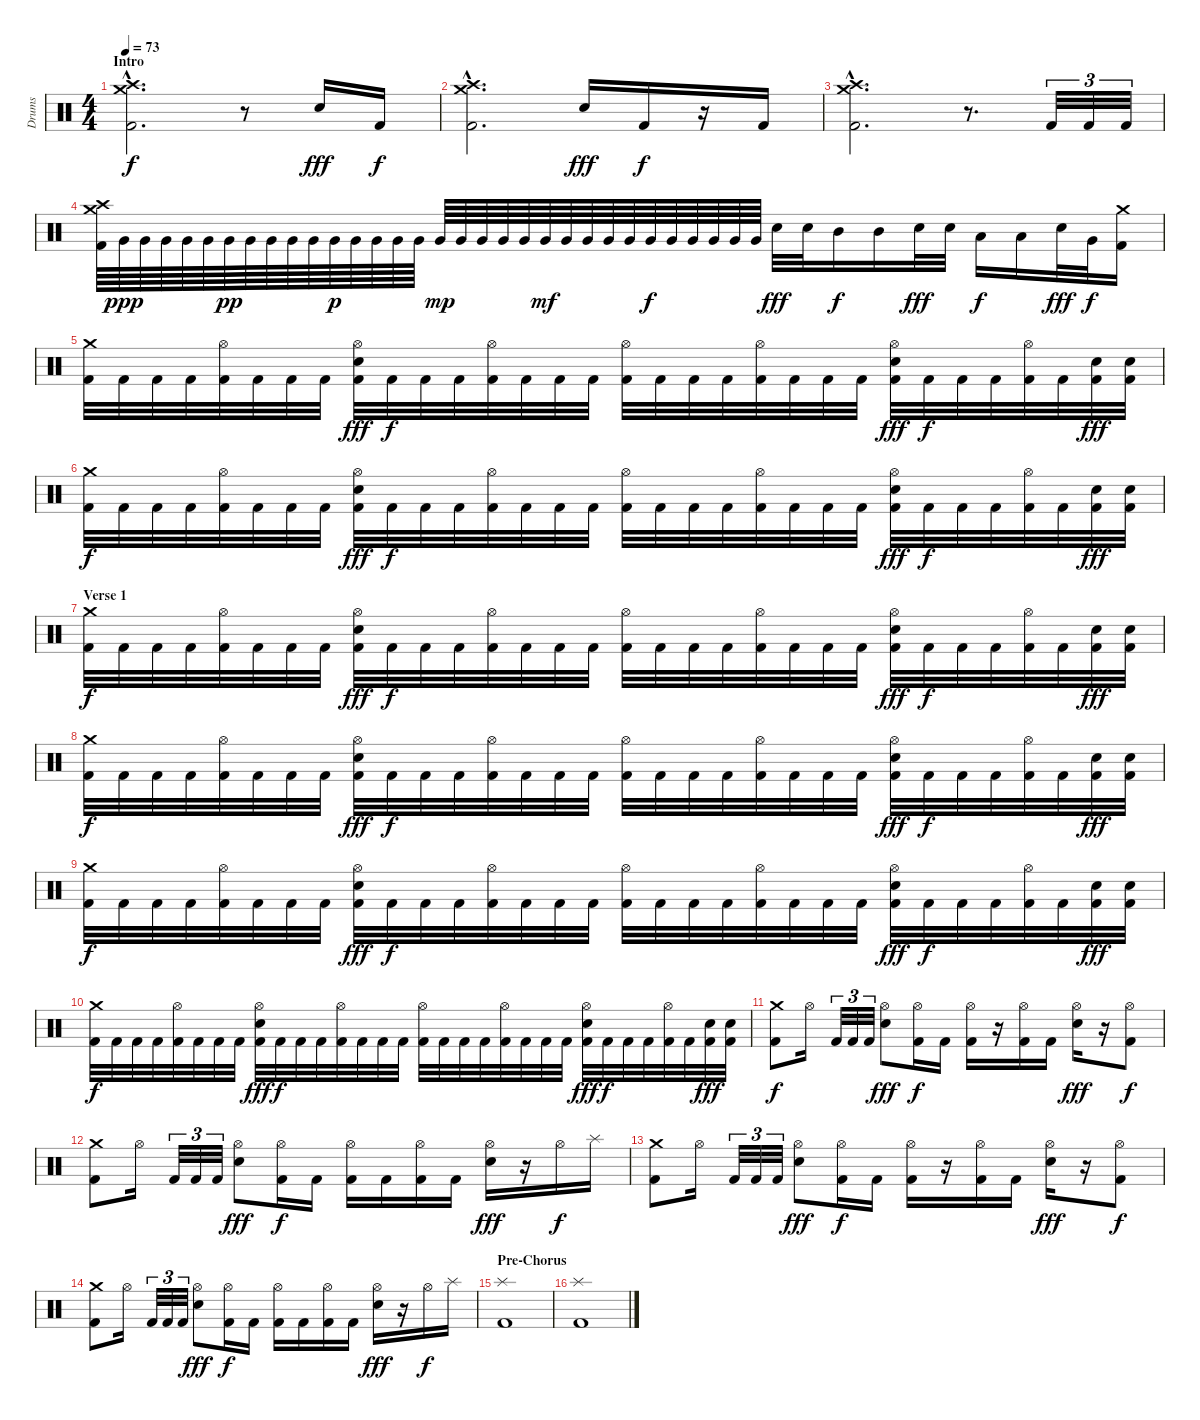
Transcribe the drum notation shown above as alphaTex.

\track ("Drums" "Drums") {instrument percussion}
\staff {score}
\articulation defaults
\ts (4 4)
\section ("" "Intro")
\tempo 73
\clef neutral
\ks c
("Crash high (hit)"{hac} "Crash medium (hit)"{hac} "Kick (hit) 2"{hac}).2{d dy f} r.8 "Snare (hit) 2".16{dy fff} "Kick (hit) 2".16{dy f} |
("Crash high (hit)"{hac} "Crash medium (hit)"{hac} "Kick (hit) 2"{hac}).2{d} "Snare (hit) 2".16{dy fff} "Kick (hit) 2".16{dy f} r.16 "Kick (hit) 2".16 |
("Crash high (hit)"{hac} "Crash medium (hit)"{hac} "Kick (hit) 2"{hac}).2{d} r.8{d} "Kick (hit) 2".32{tu (3 2)} "Kick (hit) 2".32{tu (3 2)} "Kick (hit) 2".32{tu (3 2)} |
("Crash high (hit)" "Crash medium (hit)" "Kick (hit) 2").64 "Very Low Tom (hit)".64{dy ppp} "Very Low Tom (hit)".64 "Very Low Tom (hit)".64 "Very Low Tom (hit)".64 "Very Low Tom (hit)".64 "Very Low Tom (hit)".64{dy pp} "Very Low Tom (hit)".64 "Very Low Tom (hit)".64 "Very Low Tom (hit)".64 "Very Low Tom (hit)".64 "Very Low Tom (hit)".64{dy p} "Very Low Tom (hit)".64 "Very Low Tom (hit)".64 "Very Low Tom (hit)".64 "Very Low Tom (hit)".64 "Very Low Tom (hit)".64{dy mp} "Very Low Tom (hit)".64 "Very Low Tom (hit)".64 "Very Low Tom (hit)".64 "Very Low Tom (hit)".64 "Very Low Tom (hit)".64{dy mf} "Very Low Tom (hit)".64 "Very Low Tom (hit)".64 "Very Low Tom (hit)".64 "Very Low Tom (hit)".64 "Very Low Tom (hit)".64{dy f} "Very Low Tom (hit)".64 "Very Low Tom (hit)".64 "Very Low Tom (hit)".64 "Very Low Tom (hit)".64 "Very Low Tom (hit)".64 "Snare (hit) 2".32{dy fff} "Snare (hit) 2".32 "Mid Tom (hit)".16{dy f} "Mid Tom (hit)".16 "Snare (hit) 2".32{dy fff} "Snare (hit) 2".32 "Low Tom (hit)".16{dy f} "Low Tom (hit)".16 "Snare (hit) 2".32{dy fff} "Very Low Tom (hit)".32{dy f} ("Crash medium (hit)" "Kick (hit) 2").16 |
("Crash medium (hit)" "Kick (hit) 2").32 "Kick (hit) 2".32 "Kick (hit) 2".32 "Kick (hit) 2".32 ("Hi-Hat (open)" "Kick (hit) 2").32 "Kick (hit) 2".32 "Kick (hit) 2".32 "Kick (hit) 2".32 ("Hi-Hat (open)" "Snare (hit) 2" "Kick (hit) 2").32{dy fff} "Kick (hit) 2".32{dy f} "Kick (hit) 2".32 "Kick (hit) 2".32 ("Hi-Hat (open)" "Kick (hit) 2").32 "Kick (hit) 2".32 "Kick (hit) 2".32 "Kick (hit) 2".32 ("Hi-Hat (open)" "Kick (hit) 2").32 "Kick (hit) 2".32 "Kick (hit) 2".32 "Kick (hit) 2".32 ("Hi-Hat (open)" "Kick (hit) 2").32 "Kick (hit) 2".32 "Kick (hit) 2".32 "Kick (hit) 2".32 ("Hi-Hat (open)" "Snare (hit) 2" "Kick (hit) 2").32{dy fff} "Kick (hit) 2".32{dy f} "Kick (hit) 2".32 "Kick (hit) 2".32 ("Hi-Hat (open)" "Kick (hit) 2").32 "Kick (hit) 2".32 ("Snare (hit) 2" "Kick (hit) 2").32{dy fff} ("Snare (hit) 2" "Kick (hit) 2").32 |
("Crash medium (hit)" "Kick (hit) 2").32{dy f} "Kick (hit) 2".32 "Kick (hit) 2".32 "Kick (hit) 2".32 ("Hi-Hat (open)" "Kick (hit) 2").32 "Kick (hit) 2".32 "Kick (hit) 2".32 "Kick (hit) 2".32 ("Hi-Hat (open)" "Snare (hit) 2" "Kick (hit) 2").32{dy fff} "Kick (hit) 2".32{dy f} "Kick (hit) 2".32 "Kick (hit) 2".32 ("Hi-Hat (open)" "Kick (hit) 2").32 "Kick (hit) 2".32 "Kick (hit) 2".32 "Kick (hit) 2".32 ("Hi-Hat (open)" "Kick (hit) 2").32 "Kick (hit) 2".32 "Kick (hit) 2".32 "Kick (hit) 2".32 ("Hi-Hat (open)" "Kick (hit) 2").32 "Kick (hit) 2".32 "Kick (hit) 2".32 "Kick (hit) 2".32 ("Hi-Hat (open)" "Snare (hit) 2" "Kick (hit) 2").32{dy fff} "Kick (hit) 2".32{dy f} "Kick (hit) 2".32 "Kick (hit) 2".32 ("Hi-Hat (open)" "Kick (hit) 2").32 "Kick (hit) 2".32 ("Snare (hit) 2" "Kick (hit) 2").32{dy fff} ("Snare (hit) 2" "Kick (hit) 2").32 |
\section ("" "Verse 1")
("Crash medium (hit)" "Kick (hit) 2").32{dy f} "Kick (hit) 2".32 "Kick (hit) 2".32 "Kick (hit) 2".32 ("Hi-Hat (open)" "Kick (hit) 2").32 "Kick (hit) 2".32 "Kick (hit) 2".32 "Kick (hit) 2".32 ("Hi-Hat (open)" "Snare (hit) 2" "Kick (hit) 2").32{dy fff} "Kick (hit) 2".32{dy f} "Kick (hit) 2".32 "Kick (hit) 2".32 ("Hi-Hat (open)" "Kick (hit) 2").32 "Kick (hit) 2".32 "Kick (hit) 2".32 "Kick (hit) 2".32 ("Hi-Hat (open)" "Kick (hit) 2").32 "Kick (hit) 2".32 "Kick (hit) 2".32 "Kick (hit) 2".32 ("Hi-Hat (open)" "Kick (hit) 2").32 "Kick (hit) 2".32 "Kick (hit) 2".32 "Kick (hit) 2".32 ("Hi-Hat (open)" "Snare (hit) 2" "Kick (hit) 2").32{dy fff} "Kick (hit) 2".32{dy f} "Kick (hit) 2".32 "Kick (hit) 2".32 ("Hi-Hat (open)" "Kick (hit) 2").32 "Kick (hit) 2".32 ("Snare (hit) 2" "Kick (hit) 2").32{dy fff} ("Snare (hit) 2" "Kick (hit) 2").32 |
("Crash medium (hit)" "Kick (hit) 2").32{dy f} "Kick (hit) 2".32 "Kick (hit) 2".32 "Kick (hit) 2".32 ("Hi-Hat (open)" "Kick (hit) 2").32 "Kick (hit) 2".32 "Kick (hit) 2".32 "Kick (hit) 2".32 ("Hi-Hat (open)" "Snare (hit) 2" "Kick (hit) 2").32{dy fff} "Kick (hit) 2".32{dy f} "Kick (hit) 2".32 "Kick (hit) 2".32 ("Hi-Hat (open)" "Kick (hit) 2").32 "Kick (hit) 2".32 "Kick (hit) 2".32 "Kick (hit) 2".32 ("Hi-Hat (open)" "Kick (hit) 2").32 "Kick (hit) 2".32 "Kick (hit) 2".32 "Kick (hit) 2".32 ("Hi-Hat (open)" "Kick (hit) 2").32 "Kick (hit) 2".32 "Kick (hit) 2".32 "Kick (hit) 2".32 ("Hi-Hat (open)" "Snare (hit) 2" "Kick (hit) 2").32{dy fff} "Kick (hit) 2".32{dy f} "Kick (hit) 2".32 "Kick (hit) 2".32 ("Hi-Hat (open)" "Kick (hit) 2").32 "Kick (hit) 2".32 ("Snare (hit) 2" "Kick (hit) 2").32{dy fff} ("Snare (hit) 2" "Kick (hit) 2").32 |
("Crash medium (hit)" "Kick (hit) 2").32{dy f} "Kick (hit) 2".32 "Kick (hit) 2".32 "Kick (hit) 2".32 ("Hi-Hat (open)" "Kick (hit) 2").32 "Kick (hit) 2".32 "Kick (hit) 2".32 "Kick (hit) 2".32 ("Hi-Hat (open)" "Snare (hit) 2" "Kick (hit) 2").32{dy fff} "Kick (hit) 2".32{dy f} "Kick (hit) 2".32 "Kick (hit) 2".32 ("Hi-Hat (open)" "Kick (hit) 2").32 "Kick (hit) 2".32 "Kick (hit) 2".32 "Kick (hit) 2".32 ("Hi-Hat (open)" "Kick (hit) 2").32 "Kick (hit) 2".32 "Kick (hit) 2".32 "Kick (hit) 2".32 ("Hi-Hat (open)" "Kick (hit) 2").32 "Kick (hit) 2".32 "Kick (hit) 2".32 "Kick (hit) 2".32 ("Hi-Hat (open)" "Snare (hit) 2" "Kick (hit) 2").32{dy fff} "Kick (hit) 2".32{dy f} "Kick (hit) 2".32 "Kick (hit) 2".32 ("Hi-Hat (open)" "Kick (hit) 2").32 "Kick (hit) 2".32 ("Snare (hit) 2" "Kick (hit) 2").32{dy fff} ("Snare (hit) 2" "Kick (hit) 2").32 |
("Crash medium (hit)" "Kick (hit) 2").32{dy f} "Kick (hit) 2".32 "Kick (hit) 2".32 "Kick (hit) 2".32 ("Hi-Hat (open)" "Kick (hit) 2").32 "Kick (hit) 2".32 "Kick (hit) 2".32 "Kick (hit) 2".32 ("Hi-Hat (open)" "Snare (hit) 2" "Kick (hit) 2").32{dy fff} "Kick (hit) 2".32{dy f} "Kick (hit) 2".32 "Kick (hit) 2".32 ("Hi-Hat (open)" "Kick (hit) 2").32 "Kick (hit) 2".32 "Kick (hit) 2".32 "Kick (hit) 2".32 ("Hi-Hat (open)" "Kick (hit) 2").32 "Kick (hit) 2".32 "Kick (hit) 2".32 "Kick (hit) 2".32 ("Hi-Hat (open)" "Kick (hit) 2").32 "Kick (hit) 2".32 "Kick (hit) 2".32 "Kick (hit) 2".32 ("Hi-Hat (open)" "Snare (hit) 2" "Kick (hit) 2").32{dy fff} "Kick (hit) 2".32{dy f} "Kick (hit) 2".32 "Kick (hit) 2".32 ("Hi-Hat (open)" "Kick (hit) 2").32 "Kick (hit) 2".32 ("Snare (hit) 2" "Kick (hit) 2").32{dy fff} ("Snare (hit) 2" "Kick (hit) 2").32 |
("Crash medium (hit)" "Kick (hit) 2").8{dy f} "Hi-Hat (open)".16 "Kick (hit) 2".32{tu (3 2)} "Kick (hit) 2".32{tu (3 2)} "Kick (hit) 2".32{tu (3 2)} ("Hi-Hat (open)" "Snare (hit) 2").8{dy fff} ("Hi-Hat (open)" "Kick (hit) 2").16{dy f} "Kick (hit) 2".16 ("Hi-Hat (open)" "Kick (hit) 2").16 r.16 ("Hi-Hat (open)" "Kick (hit) 2").16 "Kick (hit) 2".16 ("Hi-Hat (open)" "Snare (hit) 2").16{dy fff} r.16 ("Hi-Hat (open)" "Kick (hit) 2").8{dy f} |
("Crash medium (hit)" "Kick (hit) 2").8 "Hi-Hat (open)".16 "Kick (hit) 2".32{tu (3 2)} "Kick (hit) 2".32{tu (3 2)} "Kick (hit) 2".32{tu (3 2)} ("Hi-Hat (open)" "Snare (hit) 2").8{dy fff} ("Hi-Hat (open)" "Kick (hit) 2").16{dy f} "Kick (hit) 2".16 ("Hi-Hat (open)" "Kick (hit) 2").16 "Kick (hit) 2".16 ("Hi-Hat (open)" "Kick (hit) 2").16 "Kick (hit) 2".16 ("Hi-Hat (open)" "Snare (hit) 2").16{dy fff} r.16 "Hi-Hat (open)".16{dy f} "Splash (hit)".16 |
("Crash medium (hit)" "Kick (hit) 2").8 "Hi-Hat (open)".16 "Kick (hit) 2".32{tu (3 2)} "Kick (hit) 2".32{tu (3 2)} "Kick (hit) 2".32{tu (3 2)} ("Hi-Hat (open)" "Snare (hit) 2").8{dy fff} ("Hi-Hat (open)" "Kick (hit) 2").16{dy f} "Kick (hit) 2".16 ("Hi-Hat (open)" "Kick (hit) 2").16 r.16 ("Hi-Hat (open)" "Kick (hit) 2").16 "Kick (hit) 2".16 ("Hi-Hat (open)" "Snare (hit) 2").16{dy fff} r.16 ("Hi-Hat (open)" "Kick (hit) 2").8{dy f} |
("Crash medium (hit)" "Kick (hit) 2").8 "Hi-Hat (open)".16 "Kick (hit) 2".32{tu (3 2)} "Kick (hit) 2".32{tu (3 2)} "Kick (hit) 2".32{tu (3 2)} ("Hi-Hat (open)" "Snare (hit) 2").8{dy fff} ("Hi-Hat (open)" "Kick (hit) 2").16{dy f} "Kick (hit) 2".16 ("Hi-Hat (open)" "Kick (hit) 2").16 "Kick (hit) 2".16 ("Hi-Hat (open)" "Kick (hit) 2").16 "Kick (hit) 2".16 ("Hi-Hat (open)" "Snare (hit) 2").16{dy fff} r.16 "Hi-Hat (open)".16{dy f} "Splash (hit)".16 |
\section ("" "Pre-Chorus")
("Splash (hit)" "Kick (hit) 2").1 |
("Splash (hit)" "Kick (hit) 2").1
